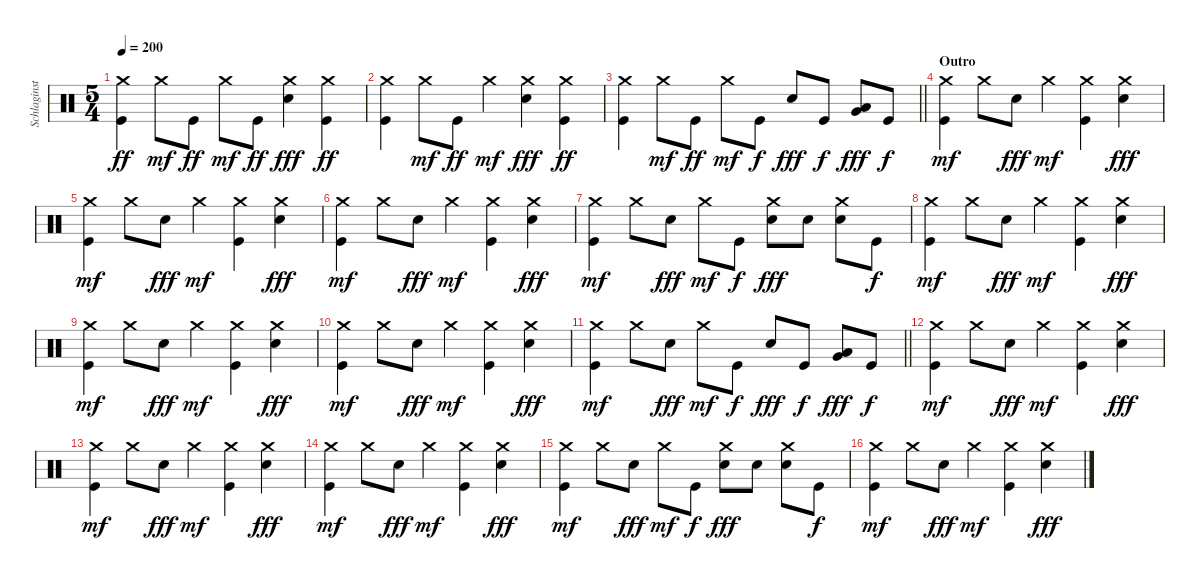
\track ("Schlaginstrumente - Auswahl" "Schlaginst") {instrument percussion}
\staff {score}
\articulation defaults
\ts (5 4)
\tempo 200
\clef neutral
\ks c
("Crash medium (hit)" "Kick (hit)").4{dy ff} "Crash medium (hit)".8{dy mf} "Kick (hit)".8{dy ff} "Crash medium (hit)".8{dy mf} "Kick (hit)".8{dy ff} ("Crash medium (hit)" "Snare (hit) 2").4{dy fff} ("Crash medium (hit)" "Kick (hit)").4{dy ff} |
("Crash medium (hit)" "Kick (hit)").4 "Crash medium (hit)".8{dy mf} "Kick (hit)".8{dy ff} "Crash medium (hit)".4{dy mf} ("Crash medium (hit)" "Snare (hit) 2").4{dy fff} ("Crash medium (hit)" "Kick (hit)").4{dy ff} |
\barLineRight lightlight
("Crash medium (hit)" "Kick (hit)").4 "Crash medium (hit)".8{dy mf} "Kick (hit)".8{dy ff} "Crash medium (hit)".8{dy mf} "Kick (hit)".8{dy f} "Snare (hit) 2".8{dy fff} "Kick (hit)".8{dy f} ("Low Tom (hit)" "Very Low Tom (hit)").8{dy fff} "Kick (hit)".8{dy f} |
\section ("" "Outro")
("Crash medium (hit)" "Kick (hit)").4{dy mf} "Crash medium (hit)".8 "Snare (hit) 2".8{dy fff} "Crash medium (hit)".4{dy mf} ("Crash medium (hit)" "Kick (hit)").4 ("Crash medium (hit)" "Snare (hit) 2").4{dy fff} |
("Crash medium (hit)" "Kick (hit)").4{dy mf} "Crash medium (hit)".8 "Snare (hit) 2".8{dy fff} "Crash medium (hit)".4{dy mf} ("Crash medium (hit)" "Kick (hit)").4 ("Crash medium (hit)" "Snare (hit) 2").4{dy fff} |
("Crash medium (hit)" "Kick (hit)").4{dy mf} "Crash medium (hit)".8 "Snare (hit) 2".8{dy fff} "Crash medium (hit)".4{dy mf} ("Crash medium (hit)" "Kick (hit)").4 ("Crash medium (hit)" "Snare (hit) 2").4{dy fff} |
("Crash medium (hit)" "Kick (hit)").4{dy mf} "Crash medium (hit)".8 "Snare (hit) 2".8{dy fff} "Crash medium (hit)".8{dy mf} "Kick (hit)".8{dy f} ("Crash medium (hit)" "Snare (hit) 2").8{dy fff} "Snare (hit) 2".8 ("Crash medium (hit)" "Snare (hit) 2").8 "Kick (hit)".8{dy f} |
("Crash medium (hit)" "Kick (hit)").4{dy mf} "Crash medium (hit)".8 "Snare (hit) 2".8{dy fff} "Crash medium (hit)".4{dy mf} ("Crash medium (hit)" "Kick (hit)").4 ("Crash medium (hit)" "Snare (hit) 2").4{dy fff} |
("Crash medium (hit)" "Kick (hit)").4{dy mf} "Crash medium (hit)".8 "Snare (hit) 2".8{dy fff} "Crash medium (hit)".4{dy mf} ("Crash medium (hit)" "Kick (hit)").4 ("Crash medium (hit)" "Snare (hit) 2").4{dy fff} |
("Crash medium (hit)" "Kick (hit)").4{dy mf} "Crash medium (hit)".8 "Snare (hit) 2".8{dy fff} "Crash medium (hit)".4{dy mf} ("Crash medium (hit)" "Kick (hit)").4 ("Crash medium (hit)" "Snare (hit) 2").4{dy fff} |
\barLineRight lightlight
("Crash medium (hit)" "Kick (hit)").4{dy mf} "Crash medium (hit)".8 "Snare (hit) 2".8{dy fff} "Crash medium (hit)".8{dy mf} "Kick (hit)".8{dy f} "Snare (hit) 2".8{dy fff} "Kick (hit)".8{dy f} ("Low Tom (hit)" "Very Low Tom (hit)").8{dy fff} "Kick (hit)".8{dy f} |
("Crash medium (hit)" "Kick (hit)").4{dy mf} "Crash medium (hit)".8 "Snare (hit) 2".8{dy fff} "Crash medium (hit)".4{dy mf} ("Crash medium (hit)" "Kick (hit)").4 ("Crash medium (hit)" "Snare (hit) 2").4{dy fff} |
("Crash medium (hit)" "Kick (hit)").4{dy mf} "Crash medium (hit)".8 "Snare (hit) 2".8{dy fff} "Crash medium (hit)".4{dy mf} ("Crash medium (hit)" "Kick (hit)").4 ("Crash medium (hit)" "Snare (hit) 2").4{dy fff} |
("Crash medium (hit)" "Kick (hit)").4{dy mf} "Crash medium (hit)".8 "Snare (hit) 2".8{dy fff} "Crash medium (hit)".4{dy mf} ("Crash medium (hit)" "Kick (hit)").4 ("Crash medium (hit)" "Snare (hit) 2").4{dy fff} |
("Crash medium (hit)" "Kick (hit)").4{dy mf} "Crash medium (hit)".8 "Snare (hit) 2".8{dy fff} "Crash medium (hit)".8{dy mf} "Kick (hit)".8{dy f} ("Crash medium (hit)" "Snare (hit) 2").8{dy fff} "Snare (hit) 2".8 ("Crash medium (hit)" "Snare (hit) 2").8 "Kick (hit)".8{dy f} |
("Crash medium (hit)" "Kick (hit)").4{dy mf} "Crash medium (hit)".8 "Snare (hit) 2".8{dy fff} "Crash medium (hit)".4{dy mf} ("Crash medium (hit)" "Kick (hit)").4 ("Crash medium (hit)" "Snare (hit) 2").4{dy fff}
